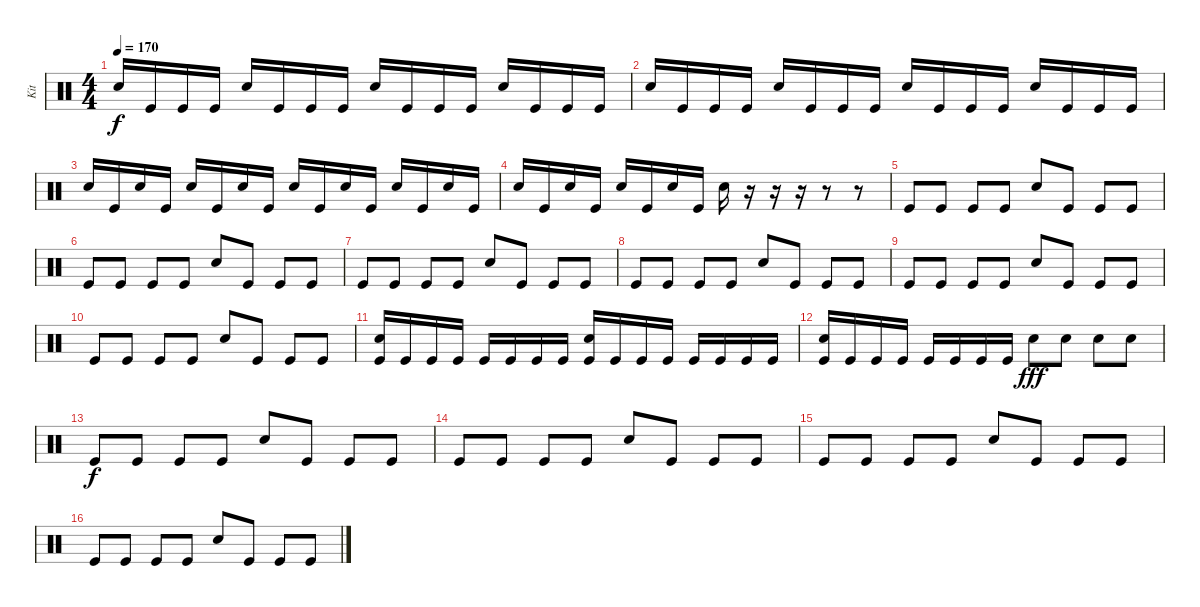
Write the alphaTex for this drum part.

\track ("Kit" "Kit") {instrument percussion}
\staff {score}
\articulation defaults
\ts (4 4)
\tempo 170
\clef neutral
\ks c "Snare (hit) 2".16{dy f} "Kick (hit)".16 "Kick (hit)".16 "Kick (hit)".16 "Snare (hit) 2".16 "Kick (hit)".16 "Kick (hit)".16 "Kick (hit)".16 "Snare (hit) 2".16 "Kick (hit)".16 "Kick (hit)".16 "Kick (hit)".16 "Snare (hit) 2".16 "Kick (hit)".16 "Kick (hit)".16 "Kick (hit)".16
|
"Snare (hit) 2".16 "Kick (hit)".16 "Kick (hit)".16 "Kick (hit)".16 "Snare (hit) 2".16 "Kick (hit)".16 "Kick (hit)".16 "Kick (hit)".16 "Snare (hit) 2".16 "Kick (hit)".16 "Kick (hit)".16 "Kick (hit)".16 "Snare (hit) 2".16 "Kick (hit)".16 "Kick (hit)".16 "Kick (hit)".16 |
"Snare (hit) 2".16 "Kick (hit)".16 "Snare (hit) 2".16 "Kick (hit)".16 "Snare (hit) 2".16 "Kick (hit)".16 "Snare (hit) 2".16 "Kick (hit)".16 "Snare (hit) 2".16 "Kick (hit)".16 "Snare (hit) 2".16 "Kick (hit)".16 "Snare (hit) 2".16 "Kick (hit)".16 "Snare (hit) 2".16 "Kick (hit)".16 |
"Snare (hit) 2".16 "Kick (hit)".16 "Snare (hit) 2".16 "Kick (hit)".16 "Snare (hit) 2".16 "Kick (hit)".16 "Snare (hit) 2".16 "Kick (hit)".16 "Snare (hit) 2".16 r.16 r.16 r.16 r.8 r.8 |
"Kick (hit)".8 "Kick (hit)".8 "Kick (hit)".8 "Kick (hit)".8 "Snare (hit) 2".8 "Kick (hit)".8 "Kick (hit)".8 "Kick (hit)".8 |
"Kick (hit)".8 "Kick (hit)".8 "Kick (hit)".8 "Kick (hit)".8 "Snare (hit) 2".8 "Kick (hit)".8 "Kick (hit)".8 "Kick (hit)".8 |
"Kick (hit)".8 "Kick (hit)".8 "Kick (hit)".8 "Kick (hit)".8 "Snare (hit) 2".8 "Kick (hit)".8 "Kick (hit)".8 "Kick (hit)".8 |
"Kick (hit)".8 "Kick (hit)".8 "Kick (hit)".8 "Kick (hit)".8 "Snare (hit) 2".8 "Kick (hit)".8 "Kick (hit)".8 "Kick (hit)".8 |
"Kick (hit)".8 "Kick (hit)".8 "Kick (hit)".8 "Kick (hit)".8 "Snare (hit) 2".8 "Kick (hit)".8 "Kick (hit)".8 "Kick (hit)".8 |
"Kick (hit)".8 "Kick (hit)".8 "Kick (hit)".8 "Kick (hit)".8 "Snare (hit) 2".8 "Kick (hit)".8 "Kick (hit)".8 "Kick (hit)".8 |
("Snare (hit) 2" "Kick (hit)").16 "Kick (hit)".16 "Kick (hit)".16 "Kick (hit)".16 "Kick (hit)".16 "Kick (hit)".16 "Kick (hit)".16 "Kick (hit)".16 ("Snare (hit) 2" "Kick (hit)").16 "Kick (hit)".16 "Kick (hit)".16 "Kick (hit)".16 "Kick (hit)".16 "Kick (hit)".16 "Kick (hit)".16 "Kick (hit)".16 |
("Snare (hit) 2" "Kick (hit)").16 "Kick (hit)".16 "Kick (hit)".16 "Kick (hit)".16 "Kick (hit)".16 "Kick (hit)".16 "Kick (hit)".16 "Kick (hit)".16 "Snare (hit) 2".8{dy fff} "Snare (hit) 2".8 "Snare (hit) 2".8 "Snare (hit) 2".8 |
"Kick (hit)".8{dy f} "Kick (hit)".8 "Kick (hit)".8 "Kick (hit)".8 "Snare (hit) 2".8 "Kick (hit)".8 "Kick (hit)".8 "Kick (hit)".8 |
"Kick (hit)".8 "Kick (hit)".8 "Kick (hit)".8 "Kick (hit)".8 "Snare (hit) 2".8 "Kick (hit)".8 "Kick (hit)".8 "Kick (hit)".8 |
"Kick (hit)".8 "Kick (hit)".8 "Kick (hit)".8 "Kick (hit)".8 "Snare (hit) 2".8 "Kick (hit)".8 "Kick (hit)".8 "Kick (hit)".8 |
"Kick (hit)".8 "Kick (hit)".8 "Kick (hit)".8 "Kick (hit)".8 "Snare (hit) 2".8 "Kick (hit)".8 "Kick (hit)".8 "Kick (hit)".8
